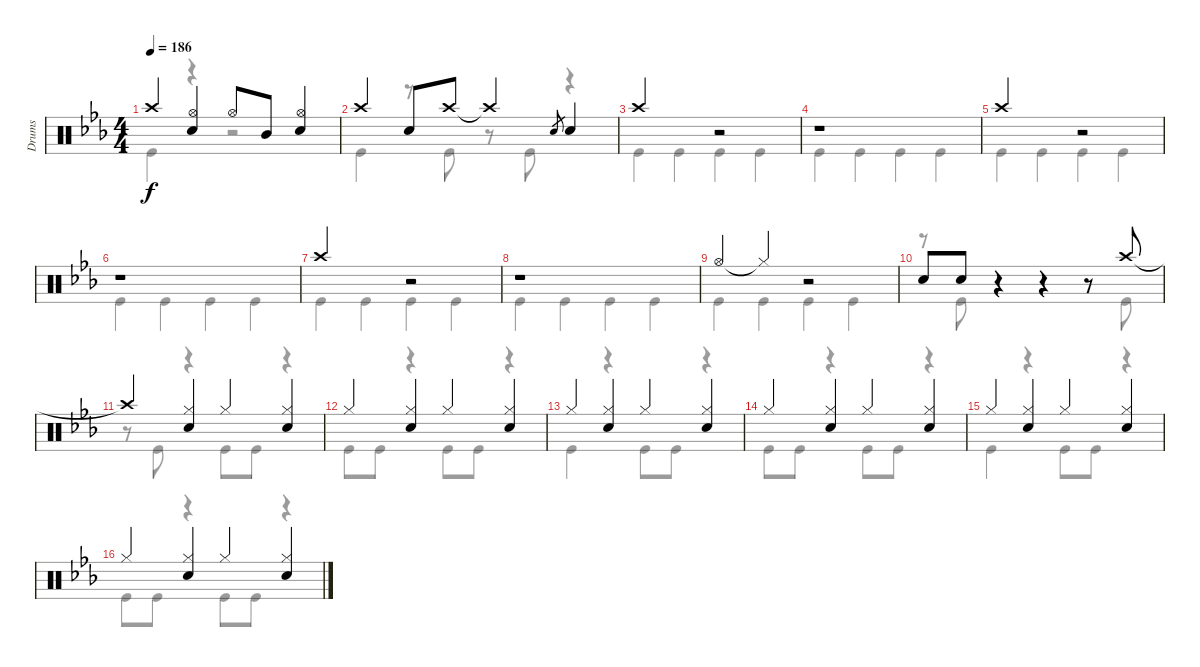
\track ("Drums" "Drums") {instrument percussion}
\staff {score}
\articulation defaults
\voice
\ts (4 4)
\tempo 186
\clef neutral
\ks eb "Crash high (hit)".4{dy f beam Up}
("Hi-Hat (open)" "Snare (hit) 2").4{beam Up} "Hi-Hat (open)".8{beam Up} "Mid Tom (hit)".8{beam Up} ("Hi-Hat (open)" "Snare (hit) 2").4{beam Up} |
"Crash high (hit)".4{beam Up} "Snare (hit) 2".8{beam Up} "Crash high (hit)".8{beam Up} "Crash high (hit)"{t}.4{beam Up} "Snare (hit) 2".8{gr} "Snare (hit) 2".4{beam Up} |
"Crash high (hit)".2{beam Up} r.2 |
r.1 |
"Crash high (hit)".2{beam Up} r.2 |
r.1 |
"Crash high (hit)".2{beam Up} r.2 |
r.1 |
"Hi-Hat (open)".4{beam Up} "Hi-Hat (closed)"{t}.4{beam Up} r.2 |
"Snare (hit) 2".8{beam Up} "Snare (hit) 2".8{beam Up} r.4 r.4 r.8 "Crash high (hit)".8{beam Up} |
"Crash high (hit)"{t}.4{beam Up} ("Hi-Hat (closed)" "Snare (hit) 2").4{beam Up} "Hi-Hat (closed)".4{beam Up} ("Hi-Hat (closed)" "Snare (hit) 2").4{beam Up} |
"Hi-Hat (closed)".4{beam Up} ("Hi-Hat (closed)" "Snare (hit) 2").4{beam Up} "Hi-Hat (closed)".4{beam Up} ("Hi-Hat (closed)" "Snare (hit) 2").4{beam Up} |
"Hi-Hat (closed)".4{beam Up} ("Hi-Hat (closed)" "Snare (hit) 2").4{beam Up} "Hi-Hat (closed)".4{beam Up} ("Hi-Hat (closed)" "Snare (hit) 2").4{beam Up} |
"Hi-Hat (closed)".4{beam Up} ("Hi-Hat (closed)" "Snare (hit) 2").4{beam Up} "Hi-Hat (closed)".4{beam Up} ("Hi-Hat (closed)" "Snare (hit) 2").4{beam Up} |
"Hi-Hat (closed)".4{beam Up} ("Hi-Hat (closed)" "Snare (hit) 2").4{beam Up} "Hi-Hat (closed)".4{beam Up} ("Hi-Hat (closed)" "Snare (hit) 2").4{beam Up} |
"Hi-Hat (closed)".4{beam Up} ("Hi-Hat (closed)" "Snare (hit) 2").4{beam Up} "Hi-Hat (closed)".4{beam Up} ("Hi-Hat (closed)" "Snare (hit) 2").4{beam Up}
\voice
\clef neutral
\ottava regular
\simile none
\ks eb "Kick (hit)".4{dy f}
r.4 r.2 |
"Kick (hit)".4 r.8 "Kick (hit)".8 r.8 "Kick (hit)".8 r.4 |
"Kick (hit)".4 "Kick (hit)".4 "Kick (hit)".4 "Kick (hit)".4 |
"Kick (hit)".4 "Kick (hit)".4 "Kick (hit)".4 "Kick (hit)".4 |
"Kick (hit)".4 "Kick (hit)".4 "Kick (hit)".4 "Kick (hit)".4 |
"Kick (hit)".4 "Kick (hit)".4 "Kick (hit)".4 "Kick (hit)".4 |
"Kick (hit)".4 "Kick (hit)".4 "Kick (hit)".4 "Kick (hit)".4 |
"Kick (hit)".4 "Kick (hit)".4 "Kick (hit)".4 "Kick (hit)".4 |
"Kick (hit)".4 "Kick (hit)".4 "Kick (hit)".4 "Kick (hit)".4 |
r.8 "Kick (hit)".8 r.4 r.4 r.8 "Kick (hit)".8 |
r.8 "Kick (hit)".8 r.4 "Kick (hit)".8 "Kick (hit)".8 r.4 |
"Kick (hit)".8 "Kick (hit)".8 r.4 "Kick (hit)".8 "Kick (hit)".8 r.4 |
"Kick (hit)".4 r.4 "Kick (hit)".8 "Kick (hit)".8 r.4 |
"Kick (hit)".8 "Kick (hit)".8 r.4 "Kick (hit)".8 "Kick (hit)".8 r.4 |
"Kick (hit)".4 r.4 "Kick (hit)".8 "Kick (hit)".8 r.4 |
"Kick (hit)".8 "Kick (hit)".8 r.4 "Kick (hit)".8 "Kick (hit)".8 r.4
